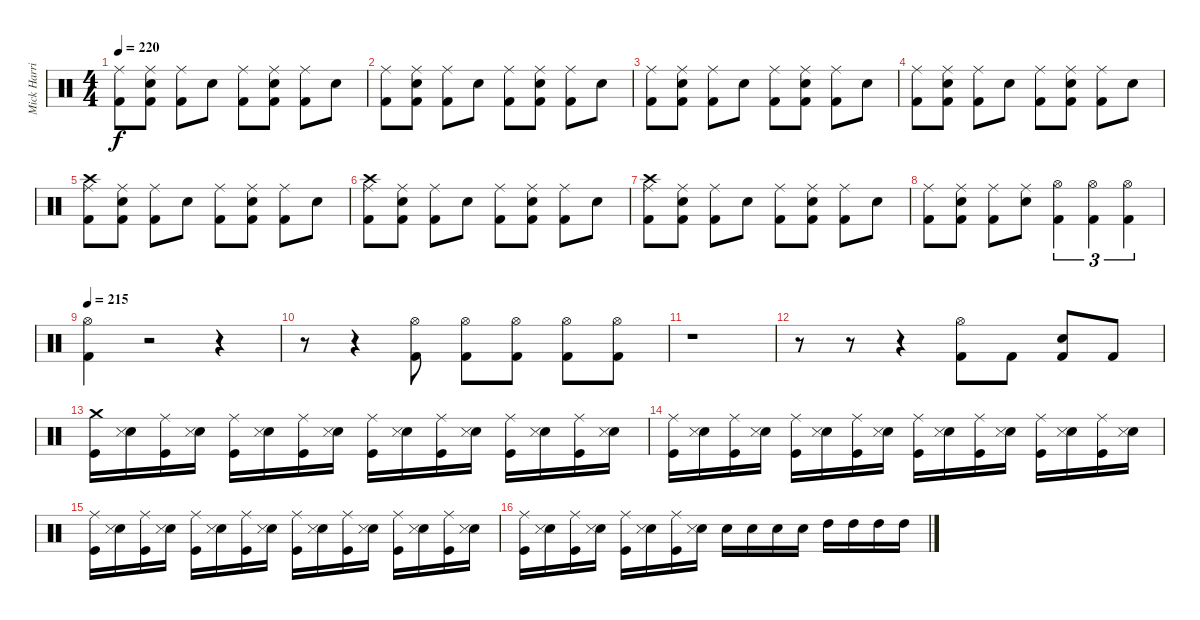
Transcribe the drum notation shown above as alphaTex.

\track ("Mick Harris (Drums)" "Mick Harri") {instrument percussion}
\staff {score}
\articulation defaults
\ts (4 4)
\tempo 220
\clef neutral
\ks c
("Kick (hit) 2" "Ride (middle)").8{dy f} ("Kick (hit) 2" "Electric Snare (hit)" "Ride (middle)").8 ("Kick (hit) 2" "Ride (middle)").8 "Electric Snare (hit)".8 ("Kick (hit) 2" "Ride (middle)").8 ("Kick (hit) 2" "Electric Snare (hit)" "Ride (middle)").8 ("Kick (hit) 2" "Ride (middle)").8 "Electric Snare (hit)".8 |
("Kick (hit) 2" "Ride (middle)").8 ("Kick (hit) 2" "Electric Snare (hit)" "Ride (middle)").8 ("Kick (hit) 2" "Ride (middle)").8 "Electric Snare (hit)".8 ("Kick (hit) 2" "Ride (middle)").8 ("Kick (hit) 2" "Electric Snare (hit)" "Ride (middle)").8 ("Kick (hit) 2" "Ride (middle)").8 "Electric Snare (hit)".8 |
("Kick (hit) 2" "Ride (middle)").8 ("Kick (hit) 2" "Electric Snare (hit)" "Ride (middle)").8 ("Kick (hit) 2" "Ride (middle)").8 "Electric Snare (hit)".8 ("Kick (hit) 2" "Ride (middle)").8 ("Kick (hit) 2" "Electric Snare (hit)" "Ride (middle)").8 ("Kick (hit) 2" "Ride (middle)").8 "Electric Snare (hit)".8 |
("Kick (hit) 2" "Ride (middle)").8 ("Kick (hit) 2" "Electric Snare (hit)" "Ride (middle)").8 ("Kick (hit) 2" "Ride (middle)").8 "Electric Snare (hit)".8 ("Kick (hit) 2" "Ride (middle)").8 ("Kick (hit) 2" "Electric Snare (hit)" "Ride (middle)").8 ("Kick (hit) 2" "Ride (middle)").8 "Electric Snare (hit)".8 |
("Kick (hit) 2" "Crash high (hit)" "Ride (middle)").8 ("Kick (hit) 2" "Electric Snare (hit)" "Ride (middle)").8 ("Kick (hit) 2" "Ride (middle)").8 "Electric Snare (hit)".8 ("Kick (hit) 2" "Ride (middle)").8 ("Kick (hit) 2" "Electric Snare (hit)" "Ride (middle)").8 ("Kick (hit) 2" "Ride (middle)").8 "Electric Snare (hit)".8 |
("Kick (hit) 2" "Crash high (hit)" "Ride (middle)").8 ("Kick (hit) 2" "Electric Snare (hit)" "Ride (middle)").8 ("Kick (hit) 2" "Ride (middle)").8 "Electric Snare (hit)".8 ("Kick (hit) 2" "Ride (middle)").8 ("Kick (hit) 2" "Electric Snare (hit)" "Ride (middle)").8 ("Kick (hit) 2" "Ride (middle)").8 "Electric Snare (hit)".8 |
("Kick (hit) 2" "Crash high (hit)" "Ride (middle)").8 ("Kick (hit) 2" "Electric Snare (hit)" "Ride (middle)").8 ("Kick (hit) 2" "Ride (middle)").8 "Electric Snare (hit)".8 ("Kick (hit) 2" "Ride (middle)").8 ("Kick (hit) 2" "Electric Snare (hit)" "Ride (middle)").8 ("Kick (hit) 2" "Ride (middle)").8 "Electric Snare (hit)".8 |
("Kick (hit) 2" "Ride (middle)").8 ("Kick (hit) 2" "Electric Snare (hit)" "Ride (middle)").8 ("Kick (hit) 2" "Ride (middle)").8 ("Electric Snare (hit)" "Ride (middle)").8 ("Kick (hit) 2" "Hi-Hat (open)").4{tu (3 2)} ("Kick (hit) 2" "Hi-Hat (open)").4{tu (3 2)} ("Kick (hit) 2" "Hi-Hat (open)").4{tu (3 2)} |
\tempo 215
("Kick (hit) 2" "Hi-Hat (open)").4 r.2 r.4 |
r.8 r.4 ("Kick (hit) 2" "Hi-Hat (open)").8 ("Kick (hit) 2" "Hi-Hat (open)").8 ("Kick (hit) 2" "Hi-Hat (open)").8 ("Kick (hit) 2" "Hi-Hat (open)").8 ("Kick (hit) 2" "Hi-Hat (open)").8 |
r.1 |
r.8 r.8 r.4 ("Kick (hit) 2" "Hi-Hat (open)").8 "Kick (hit) 2".8 ("Kick (hit) 2" "Electric Snare (hit)").8 "Kick (hit) 2".8 |
("Kick (hit)" "Crash medium (hit)").16 ("Electric Snare (hit)" "Snare (side stick) 3").16 ("Kick (hit)" "Ride (middle)").16 ("Electric Snare (hit)" "Snare (side stick) 3").16 ("Kick (hit)" "Ride (middle)").16 ("Electric Snare (hit)" "Snare (side stick) 3").16 ("Kick (hit)" "Ride (middle)").16 ("Electric Snare (hit)" "Snare (side stick) 3").16 ("Kick (hit)" "Ride (middle)").16 ("Electric Snare (hit)" "Snare (side stick) 3").16 ("Kick (hit)" "Ride (middle)").16 ("Electric Snare (hit)" "Snare (side stick) 3").16 ("Kick (hit)" "Ride (middle)").16 ("Electric Snare (hit)" "Snare (side stick) 3").16 ("Kick (hit)" "Ride (middle)").16 ("Electric Snare (hit)" "Snare (side stick) 3").16 |
("Kick (hit)" "Ride (middle)").16 ("Electric Snare (hit)" "Snare (side stick) 3").16 ("Kick (hit)" "Ride (middle)").16 ("Electric Snare (hit)" "Snare (side stick) 3").16 ("Kick (hit)" "Ride (middle)").16 ("Electric Snare (hit)" "Snare (side stick) 3").16 ("Kick (hit)" "Ride (middle)").16 ("Electric Snare (hit)" "Snare (side stick) 3").16 ("Kick (hit)" "Ride (middle)").16 ("Electric Snare (hit)" "Snare (side stick) 3").16 ("Kick (hit)" "Ride (middle)").16 ("Electric Snare (hit)" "Snare (side stick) 3").16 ("Kick (hit)" "Ride (middle)").16 ("Electric Snare (hit)" "Snare (side stick) 3").16 ("Kick (hit)" "Ride (middle)").16 ("Electric Snare (hit)" "Snare (side stick) 3").16 |
("Kick (hit)" "Ride (middle)").16 ("Electric Snare (hit)" "Snare (side stick) 3").16 ("Kick (hit)" "Ride (middle)").16 ("Electric Snare (hit)" "Snare (side stick) 3").16 ("Kick (hit)" "Ride (middle)").16 ("Electric Snare (hit)" "Snare (side stick) 3").16 ("Kick (hit)" "Ride (middle)").16 ("Electric Snare (hit)" "Snare (side stick) 3").16 ("Kick (hit)" "Ride (middle)").16 ("Electric Snare (hit)" "Snare (side stick) 3").16 ("Kick (hit)" "Ride (middle)").16 ("Electric Snare (hit)" "Snare (side stick) 3").16 ("Kick (hit)" "Ride (middle)").16 ("Electric Snare (hit)" "Snare (side stick) 3").16 ("Kick (hit)" "Ride (middle)").16 ("Electric Snare (hit)" "Snare (side stick) 3").16 |
("Kick (hit)" "Ride (middle)").16 ("Electric Snare (hit)" "Snare (side stick) 3").16 ("Kick (hit)" "Ride (middle)").16 ("Electric Snare (hit)" "Snare (side stick) 3").16 ("Kick (hit)" "Ride (middle)").16 ("Electric Snare (hit)" "Snare (side stick) 3").16 ("Kick (hit)" "Ride (middle)").16 ("Electric Snare (hit)" "Snare (side stick) 3").16 "Electric Snare (hit)".16 "Electric Snare (hit)".16 "Electric Snare (hit)".16 "Electric Snare (hit)".16 "High Tom (hit)".16 "High Tom (hit)".16 "High Tom (hit)".16 "High Tom (hit)".16
